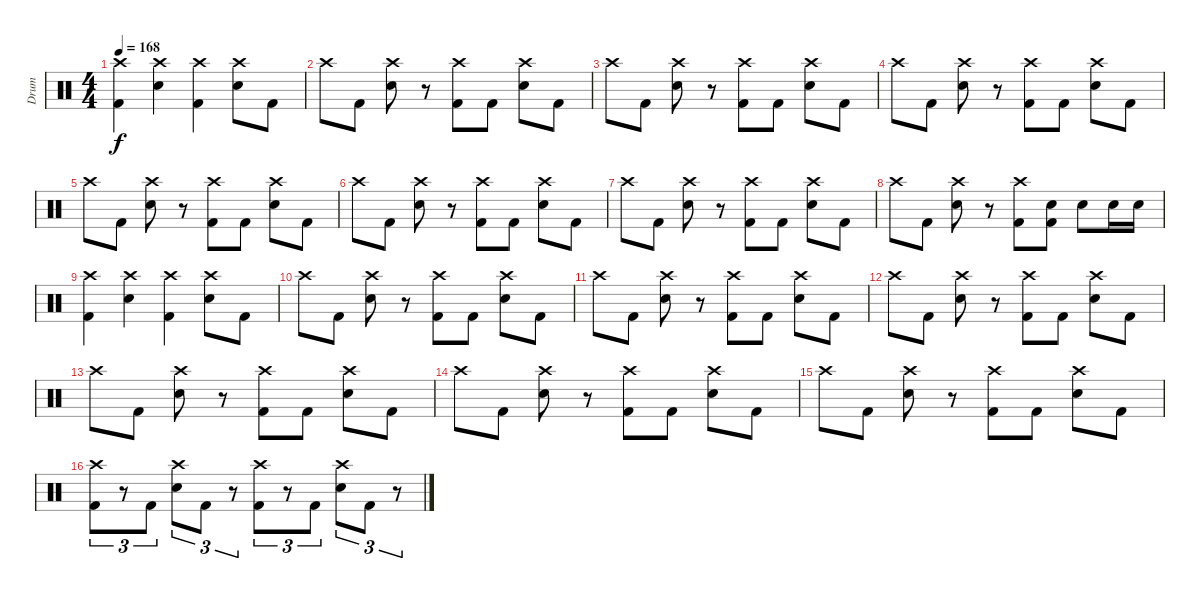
\track ("Drum" "Drum") {instrument percussion}
\staff {score}
\articulation defaults
\ts (4 4)
\tempo 168
\clef neutral
\ks c
("Crash high (hit)" "Kick (hit) 2").4{dy f} ("Crash high (hit)" "Electric Snare (hit)").4 ("Crash high (hit)" "Kick (hit) 2").4 ("Crash high (hit)" "Electric Snare (hit)").8 "Kick (hit) 2".8 |
"Crash high (hit)".8 "Kick (hit) 2".8 ("Crash high (hit)" "Electric Snare (hit)").8 r.8 ("Crash high (hit)" "Kick (hit) 2").8 "Kick (hit) 2".8 ("Crash high (hit)" "Electric Snare (hit)").8 "Kick (hit) 2".8 |
"Crash high (hit)".8 "Kick (hit) 2".8 ("Crash high (hit)" "Electric Snare (hit)").8 r.8 ("Crash high (hit)" "Kick (hit) 2").8 "Kick (hit) 2".8 ("Crash high (hit)" "Electric Snare (hit)").8 "Kick (hit) 2".8 |
"Crash high (hit)".8 "Kick (hit) 2".8 ("Crash high (hit)" "Electric Snare (hit)").8 r.8 ("Crash high (hit)" "Kick (hit) 2").8 "Kick (hit) 2".8 ("Crash high (hit)" "Electric Snare (hit)").8 "Kick (hit) 2".8 |
"Crash high (hit)".8 "Kick (hit) 2".8 ("Crash high (hit)" "Electric Snare (hit)").8 r.8 ("Crash high (hit)" "Kick (hit) 2").8 "Kick (hit) 2".8 ("Crash high (hit)" "Electric Snare (hit)").8 "Kick (hit) 2".8 |
"Crash high (hit)".8 "Kick (hit) 2".8 ("Crash high (hit)" "Electric Snare (hit)").8 r.8 ("Crash high (hit)" "Kick (hit) 2").8 "Kick (hit) 2".8 ("Crash high (hit)" "Electric Snare (hit)").8 "Kick (hit) 2".8 |
"Crash high (hit)".8 "Kick (hit) 2".8 ("Crash high (hit)" "Electric Snare (hit)").8 r.8 ("Crash high (hit)" "Kick (hit) 2").8 "Kick (hit) 2".8 ("Crash high (hit)" "Electric Snare (hit)").8 "Kick (hit) 2".8 |
"Crash high (hit)".8 "Kick (hit) 2".8 ("Crash high (hit)" "Electric Snare (hit)").8 r.8 ("Crash high (hit)" "Kick (hit) 2").8 ("Electric Snare (hit)" "Kick (hit) 2").8 "Electric Snare (hit)".8 "Electric Snare (hit)".16 "Electric Snare (hit)".16 |
("Crash high (hit)" "Kick (hit) 2").4 ("Crash high (hit)" "Electric Snare (hit)").4 ("Crash high (hit)" "Kick (hit) 2").4 ("Crash high (hit)" "Electric Snare (hit)").8 "Kick (hit) 2".8 |
"Crash high (hit)".8 "Kick (hit) 2".8 ("Crash high (hit)" "Electric Snare (hit)").8 r.8 ("Crash high (hit)" "Kick (hit) 2").8 "Kick (hit) 2".8 ("Crash high (hit)" "Electric Snare (hit)").8 "Kick (hit) 2".8 |
"Crash high (hit)".8 "Kick (hit) 2".8 ("Crash high (hit)" "Electric Snare (hit)").8 r.8 ("Crash high (hit)" "Kick (hit) 2").8 "Kick (hit) 2".8 ("Crash high (hit)" "Electric Snare (hit)").8 "Kick (hit) 2".8 |
"Crash high (hit)".8 "Kick (hit) 2".8 ("Crash high (hit)" "Electric Snare (hit)").8 r.8 ("Crash high (hit)" "Kick (hit) 2").8 "Kick (hit) 2".8 ("Crash high (hit)" "Electric Snare (hit)").8 "Kick (hit) 2".8 |
"Crash high (hit)".8 "Kick (hit) 2".8 ("Crash high (hit)" "Electric Snare (hit)").8 r.8 ("Crash high (hit)" "Kick (hit) 2").8 "Kick (hit) 2".8 ("Crash high (hit)" "Electric Snare (hit)").8 "Kick (hit) 2".8 |
"Crash high (hit)".8 "Kick (hit) 2".8 ("Crash high (hit)" "Electric Snare (hit)").8 r.8 ("Crash high (hit)" "Kick (hit) 2").8 "Kick (hit) 2".8 ("Crash high (hit)" "Electric Snare (hit)").8 "Kick (hit) 2".8 |
"Crash high (hit)".8 "Kick (hit) 2".8 ("Crash high (hit)" "Electric Snare (hit)").8 r.8 ("Crash high (hit)" "Kick (hit) 2").8 "Kick (hit) 2".8 ("Crash high (hit)" "Electric Snare (hit)").8 "Kick (hit) 2".8 |
("Crash high (hit)" "Kick (hit) 2").8{tu (3 2)} r.8{tu (3 2)} "Kick (hit) 2".8{tu (3 2)} ("Crash high (hit)" "Electric Snare (hit)").8{tu (3 2)} "Kick (hit) 2".8{tu (3 2)} r.8{tu (3 2)} ("Crash high (hit)" "Kick (hit) 2").8{tu (3 2)} r.8{tu (3 2)} "Kick (hit) 2".8{tu (3 2)} ("Crash high (hit)" "Electric Snare (hit)").8{tu (3 2)} "Kick (hit) 2".8{tu (3 2)} r.8{tu (3 2)}
